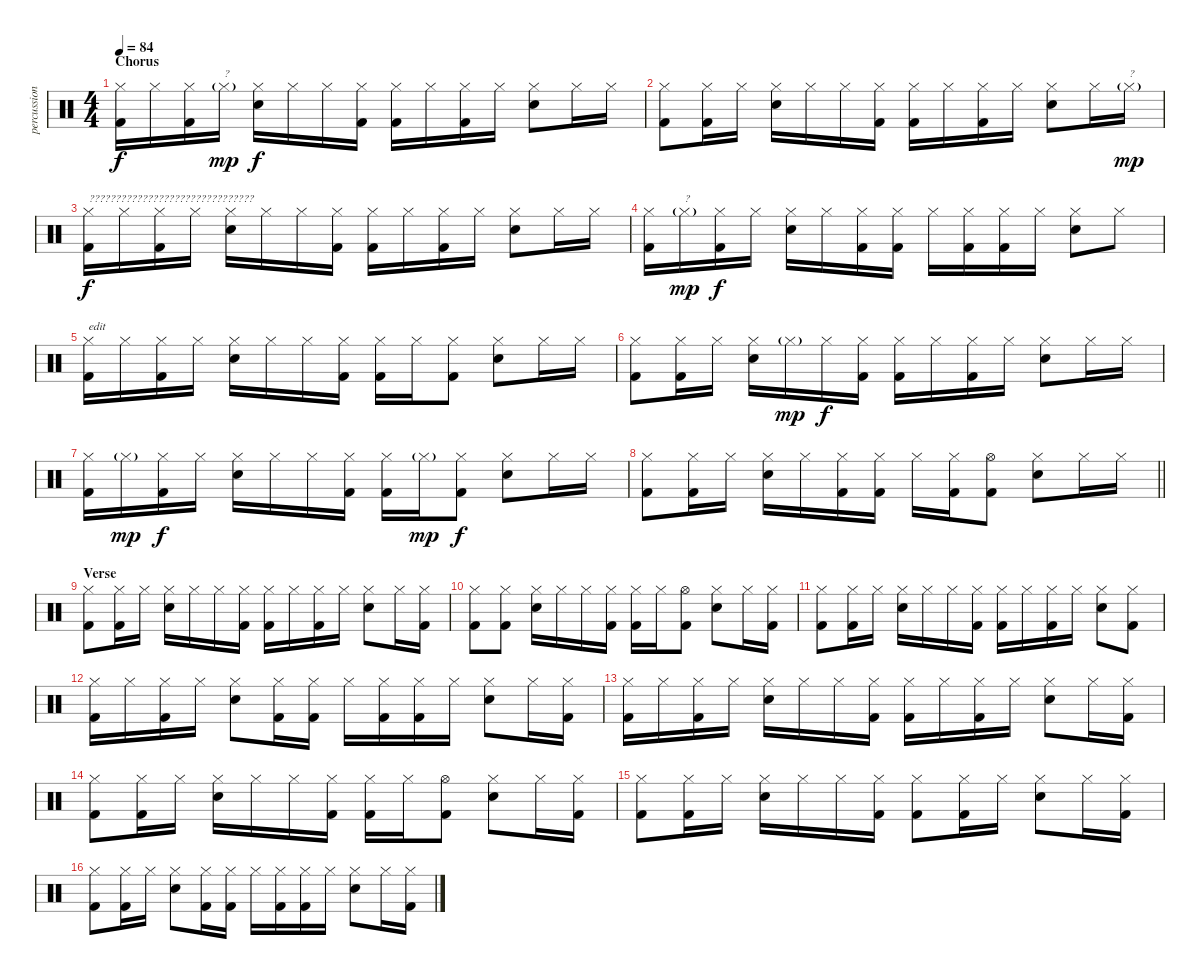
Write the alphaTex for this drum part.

\track ("percussion" "percussion") {instrument percussion}
\staff {score}
\articulation defaults
\ts (4 4)
\section ("" "Chorus")
\tempo 84
\clef neutral
\ks c
("Hi-Hat (closed)" "Kick (hit) 2").16{dy f} "Hi-Hat (closed)".16 ("Hi-Hat (closed)" "Kick (hit) 2").16 "Hi-Hat (closed)"{g}.16{txt "?" dy mp} ("Snare (hit) 2" "Hi-Hat (closed)").16{dy f} "Hi-Hat (closed)".16 "Hi-Hat (closed)".16 ("Hi-Hat (closed)" "Kick (hit) 2").16 ("Hi-Hat (closed)" "Kick (hit) 2").16 "Hi-Hat (closed)".16 ("Hi-Hat (closed)" "Kick (hit) 2").16 "Hi-Hat (closed)".16 ("Snare (hit) 2" "Hi-Hat (closed)").8 "Hi-Hat (closed)".16 "Hi-Hat (closed)".16 |
("Hi-Hat (closed)" "Kick (hit) 2").8 ("Hi-Hat (closed)" "Kick (hit) 2").16 "Hi-Hat (closed)".16 ("Snare (hit) 2" "Hi-Hat (closed)").16 "Hi-Hat (closed)".16 "Hi-Hat (closed)".16 ("Hi-Hat (closed)" "Kick (hit) 2").16 ("Hi-Hat (closed)" "Kick (hit) 2").16 "Hi-Hat (closed)".16 ("Hi-Hat (closed)" "Kick (hit) 2").16 "Hi-Hat (closed)".16 ("Snare (hit) 2" "Hi-Hat (closed)").8 "Hi-Hat (closed)".16 "Hi-Hat (closed)"{g}.16{txt "?" dy mp} |
("Hi-Hat (closed)" "Kick (hit) 2").16{txt "???????????????????????????????" dy f} "Hi-Hat (closed)".16 ("Hi-Hat (closed)" "Kick (hit) 2").16 "Hi-Hat (closed)".16 ("Snare (hit) 2" "Hi-Hat (closed)").16 "Hi-Hat (closed)".16 "Hi-Hat (closed)".16 ("Hi-Hat (closed)" "Kick (hit) 2").16 ("Hi-Hat (closed)" "Kick (hit) 2").16 "Hi-Hat (closed)".16 ("Hi-Hat (closed)" "Kick (hit) 2").16 "Hi-Hat (closed)".16 ("Snare (hit) 2" "Hi-Hat (closed)").8 "Hi-Hat (closed)".16 "Hi-Hat (closed)".16 |
("Hi-Hat (closed)" "Kick (hit) 2").16 "Hi-Hat (closed)"{g}.16{txt "?" dy mp} ("Hi-Hat (closed)" "Kick (hit) 2").16{dy f} "Hi-Hat (closed)".16 ("Snare (hit) 2" "Hi-Hat (closed)").16 "Hi-Hat (closed)".16 ("Hi-Hat (closed)" "Kick (hit) 2").16 ("Hi-Hat (closed)" "Kick (hit) 2").16 "Hi-Hat (closed)".16 ("Hi-Hat (closed)" "Kick (hit) 2").16 ("Hi-Hat (closed)" "Kick (hit) 2").16 "Hi-Hat (closed)".16 ("Snare (hit) 2" "Hi-Hat (closed)").8 "Hi-Hat (closed)".8 |
("Hi-Hat (closed)" "Kick (hit) 2").16{txt "edit"} "Hi-Hat (closed)".16 ("Hi-Hat (closed)" "Kick (hit) 2").16 "Hi-Hat (closed)".16 ("Snare (hit) 2" "Hi-Hat (closed)").16 "Hi-Hat (closed)".16 "Hi-Hat (closed)".16 ("Hi-Hat (closed)" "Kick (hit) 2").16 ("Hi-Hat (closed)" "Kick (hit) 2").16 "Hi-Hat (closed)".16 ("Hi-Hat (closed)" "Kick (hit) 2").8 ("Snare (hit) 2" "Hi-Hat (closed)").8 "Hi-Hat (closed)".16 "Hi-Hat (closed)".16 |
("Hi-Hat (closed)" "Kick (hit) 2").8 ("Hi-Hat (closed)" "Kick (hit) 2").16 "Hi-Hat (closed)".16 ("Snare (hit) 2" "Hi-Hat (closed)").16 "Hi-Hat (closed)"{g}.16{dy mp} "Hi-Hat (closed)".16{dy f} ("Hi-Hat (closed)" "Kick (hit) 2").16 ("Hi-Hat (closed)" "Kick (hit) 2").16 "Hi-Hat (closed)".16 ("Hi-Hat (closed)" "Kick (hit) 2").16 "Hi-Hat (closed)".16 ("Snare (hit) 2" "Hi-Hat (closed)").8 "Hi-Hat (closed)".16 "Hi-Hat (closed)".16 |
("Hi-Hat (closed)" "Kick (hit) 2").16 "Hi-Hat (closed)"{g}.16{dy mp} ("Hi-Hat (closed)" "Kick (hit) 2").16{dy f} "Hi-Hat (closed)".16 ("Snare (hit) 2" "Hi-Hat (closed)").16 "Hi-Hat (closed)".16 "Hi-Hat (closed)".16 ("Hi-Hat (closed)" "Kick (hit) 2").16 ("Hi-Hat (closed)" "Kick (hit) 2").16 "Hi-Hat (closed)"{g}.16{dy mp} ("Hi-Hat (closed)" "Kick (hit) 2").8{dy f} ("Snare (hit) 2" "Hi-Hat (closed)").8 "Hi-Hat (closed)".16 "Hi-Hat (closed)".16 |
\barLineRight lightlight
("Hi-Hat (closed)" "Kick (hit) 2").8 ("Hi-Hat (closed)" "Kick (hit) 2").16 "Hi-Hat (closed)".16 ("Snare (hit) 2" "Hi-Hat (closed)").16 "Hi-Hat (closed)".16 ("Hi-Hat (closed)" "Kick (hit) 2").16 ("Hi-Hat (closed)" "Kick (hit) 2").16 "Hi-Hat (closed)".16 ("Hi-Hat (closed)" "Kick (hit) 2").16 ("Hi-Hat (open)" "Kick (hit) 2").8 ("Snare (hit) 2" "Hi-Hat (closed)").8 "Hi-Hat (closed)".16 "Hi-Hat (closed)".16 |
\section ("" "Verse")
("Hi-Hat (closed)" "Kick (hit) 2").8 ("Hi-Hat (closed)" "Kick (hit) 2").16 "Hi-Hat (closed)".16 ("Snare (hit) 2" "Hi-Hat (closed)").16 "Hi-Hat (closed)".16 "Hi-Hat (closed)".16 ("Hi-Hat (closed)" "Kick (hit) 2").16 ("Hi-Hat (closed)" "Kick (hit) 2").16 "Hi-Hat (closed)".16 ("Hi-Hat (closed)" "Kick (hit) 2").16 "Hi-Hat (closed)".16 ("Snare (hit) 2" "Hi-Hat (closed)").8 "Hi-Hat (closed)".16 ("Hi-Hat (closed)" "Kick (hit) 2").16 |
("Hi-Hat (closed)" "Kick (hit) 2").8 ("Hi-Hat (closed)" "Kick (hit) 2").8 ("Snare (hit) 2" "Hi-Hat (closed)").16 "Hi-Hat (closed)".16 "Hi-Hat (closed)".16 ("Hi-Hat (closed)" "Kick (hit) 2").16 ("Hi-Hat (closed)" "Kick (hit) 2").16 "Hi-Hat (closed)".16 ("Hi-Hat (open)" "Kick (hit) 2").8 ("Snare (hit) 2" "Hi-Hat (closed)").8 "Hi-Hat (closed)".16 ("Hi-Hat (closed)" "Kick (hit) 2").16 |
("Hi-Hat (closed)" "Kick (hit) 2").8 ("Hi-Hat (closed)" "Kick (hit) 2").16 "Hi-Hat (closed)".16 ("Snare (hit) 2" "Hi-Hat (closed)").16 "Hi-Hat (closed)".16 "Hi-Hat (closed)".16 ("Hi-Hat (closed)" "Kick (hit) 2").16 ("Hi-Hat (closed)" "Kick (hit) 2").16 "Hi-Hat (closed)".16 ("Hi-Hat (closed)" "Kick (hit) 2").16 "Hi-Hat (closed)".16 ("Snare (hit) 2" "Hi-Hat (closed)").8 ("Hi-Hat (closed)" "Kick (hit) 2").8 |
("Hi-Hat (closed)" "Kick (hit) 2").16 "Hi-Hat (closed)".16 ("Hi-Hat (closed)" "Kick (hit) 2").16 "Hi-Hat (closed)".16 ("Snare (hit) 2" "Hi-Hat (closed)").8 ("Hi-Hat (closed)" "Kick (hit) 2").16 ("Hi-Hat (closed)" "Kick (hit) 2").16 "Hi-Hat (closed)".16 ("Hi-Hat (closed)" "Kick (hit) 2").16 ("Hi-Hat (closed)" "Kick (hit) 2").16 "Hi-Hat (closed)".16 ("Snare (hit) 2" "Hi-Hat (closed)").8 "Hi-Hat (closed)".16 ("Hi-Hat (closed)" "Kick (hit) 2").16 |
("Hi-Hat (closed)" "Kick (hit) 2").16 "Hi-Hat (closed)".16 ("Hi-Hat (closed)" "Kick (hit) 2").16 "Hi-Hat (closed)".16 ("Snare (hit) 2" "Hi-Hat (closed)").16 "Hi-Hat (closed)".16 "Hi-Hat (closed)".16 ("Hi-Hat (closed)" "Kick (hit) 2").16 ("Hi-Hat (closed)" "Kick (hit) 2").16 "Hi-Hat (closed)".16 ("Hi-Hat (closed)" "Kick (hit) 2").16 "Hi-Hat (closed)".16 ("Snare (hit) 2" "Hi-Hat (closed)").8 "Hi-Hat (closed)".16 ("Hi-Hat (closed)" "Kick (hit) 2").16 |
("Hi-Hat (closed)" "Kick (hit) 2").8 ("Hi-Hat (closed)" "Kick (hit) 2").16 "Hi-Hat (closed)".16 ("Snare (hit) 2" "Hi-Hat (closed)").16 "Hi-Hat (closed)".16 "Hi-Hat (closed)".16 ("Hi-Hat (closed)" "Kick (hit) 2").16 ("Hi-Hat (closed)" "Kick (hit) 2").16 "Hi-Hat (closed)".16 ("Hi-Hat (open)" "Kick (hit) 2").8 ("Snare (hit) 2" "Hi-Hat (closed)").8 "Hi-Hat (closed)".16 ("Hi-Hat (closed)" "Kick (hit) 2").16 |
("Hi-Hat (closed)" "Kick (hit) 2").8 ("Hi-Hat (closed)" "Kick (hit) 2").16 "Hi-Hat (closed)".16 ("Snare (hit) 2" "Hi-Hat (closed)").16 "Hi-Hat (closed)".16 "Hi-Hat (closed)".16 ("Hi-Hat (closed)" "Kick (hit) 2").16 ("Hi-Hat (closed)" "Kick (hit) 2").8 ("Hi-Hat (closed)" "Kick (hit) 2").16 "Hi-Hat (closed)".16 ("Snare (hit) 2" "Hi-Hat (closed)").8 "Hi-Hat (closed)".16 ("Hi-Hat (closed)" "Kick (hit) 2").16 |
("Hi-Hat (closed)" "Kick (hit) 2").8 ("Hi-Hat (closed)" "Kick (hit) 2").16 "Hi-Hat (closed)".16 ("Snare (hit) 2" "Hi-Hat (closed)").8 ("Hi-Hat (closed)" "Kick (hit) 2").16 ("Hi-Hat (closed)" "Kick (hit) 2").16 "Hi-Hat (closed)".16 ("Hi-Hat (closed)" "Kick (hit) 2").16 ("Hi-Hat (closed)" "Kick (hit) 2").16 "Hi-Hat (closed)".16 ("Snare (hit) 2" "Hi-Hat (closed)").8 "Hi-Hat (closed)".16 ("Hi-Hat (closed)" "Kick (hit) 2").16
